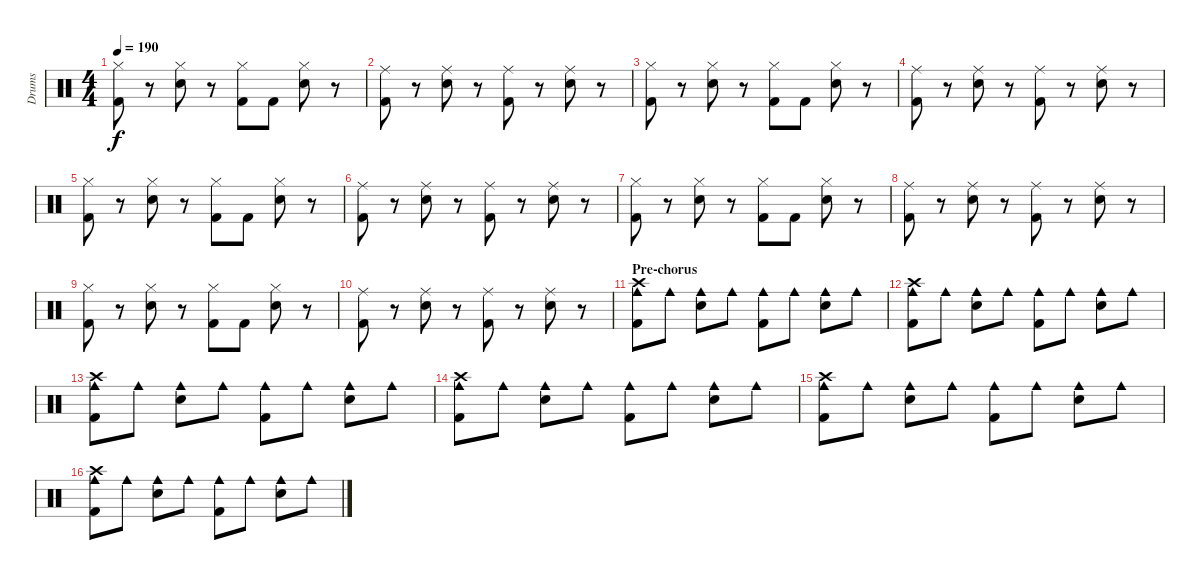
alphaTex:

\track ("Drums" "Drums") {instrument percussion}
\staff {score}
\articulation defaults
\ts (4 4)
\tempo 190
\clef neutral
\ks c
("Hi-Hat (closed)" "Kick (hit) 2").8{dy f} r.8 ("Hi-Hat (closed)" "Electric Snare (hit)").8 r.8 ("Hi-Hat (closed)" "Kick (hit) 2").8 "Kick (hit) 2".8 ("Hi-Hat (closed)" "Electric Snare (hit)").8 r.8 |
("Ride (middle)" "Kick (hit) 2").8 r.8 ("Ride (middle)" "Electric Snare (hit)").8 r.8 ("Ride (middle)" "Kick (hit) 2").8 r.8 ("Ride (middle)" "Electric Snare (hit)").8 r.8 |
("Hi-Hat (closed)" "Kick (hit) 2").8 r.8 ("Hi-Hat (closed)" "Electric Snare (hit)").8 r.8 ("Hi-Hat (closed)" "Kick (hit) 2").8 "Kick (hit) 2".8 ("Hi-Hat (closed)" "Electric Snare (hit)").8 r.8 |
("Ride (middle)" "Kick (hit) 2").8 r.8 ("Ride (middle)" "Electric Snare (hit)").8 r.8 ("Ride (middle)" "Kick (hit) 2").8 r.8 ("Ride (middle)" "Electric Snare (hit)").8 r.8 |
("Hi-Hat (closed)" "Kick (hit) 2").8 r.8 ("Hi-Hat (closed)" "Electric Snare (hit)").8 r.8 ("Hi-Hat (closed)" "Kick (hit) 2").8 "Kick (hit) 2".8 ("Hi-Hat (closed)" "Electric Snare (hit)").8 r.8 |
("Ride (middle)" "Kick (hit) 2").8 r.8 ("Ride (middle)" "Electric Snare (hit)").8 r.8 ("Ride (middle)" "Kick (hit) 2").8 r.8 ("Ride (middle)" "Electric Snare (hit)").8 r.8 |
("Hi-Hat (closed)" "Kick (hit) 2").8 r.8 ("Hi-Hat (closed)" "Electric Snare (hit)").8 r.8 ("Hi-Hat (closed)" "Kick (hit) 2").8 "Kick (hit) 2".8 ("Hi-Hat (closed)" "Electric Snare (hit)").8 r.8 |
("Ride (middle)" "Kick (hit) 2").8 r.8 ("Ride (middle)" "Electric Snare (hit)").8 r.8 ("Ride (middle)" "Kick (hit) 2").8 r.8 ("Ride (middle)" "Electric Snare (hit)").8 r.8 |
("Hi-Hat (closed)" "Kick (hit) 2").8 r.8 ("Hi-Hat (closed)" "Electric Snare (hit)").8 r.8 ("Hi-Hat (closed)" "Kick (hit) 2").8 "Kick (hit) 2".8 ("Hi-Hat (closed)" "Electric Snare (hit)").8 r.8 |
("Ride (middle)" "Kick (hit) 2").8 r.8 ("Ride (middle)" "Electric Snare (hit)").8 r.8 ("Ride (middle)" "Kick (hit) 2").8 r.8 ("Ride (middle)" "Electric Snare (hit)").8 r.8 |
\section ("" "Pre-chorus")
("Crash high (hit)" "Cowbell medium (hit)" "Kick (hit) 2").8 "Cowbell medium (hit)".8 ("Cowbell medium (hit)" "Electric Snare (hit)").8 "Cowbell medium (hit)".8 ("Cowbell medium (hit)" "Kick (hit) 2").8 "Cowbell medium (hit)".8 ("Cowbell medium (hit)" "Electric Snare (hit)").8 "Cowbell medium (hit)".8 |
("Crash high (hit)" "Cowbell medium (hit)" "Kick (hit) 2").8 "Cowbell medium (hit)".8 ("Cowbell medium (hit)" "Electric Snare (hit)").8 "Cowbell medium (hit)".8 ("Cowbell medium (hit)" "Kick (hit) 2").8 "Cowbell medium (hit)".8 ("Cowbell medium (hit)" "Electric Snare (hit)").8 "Cowbell medium (hit)".8 |
("Crash high (hit)" "Cowbell medium (hit)" "Kick (hit) 2").8 "Cowbell medium (hit)".8 ("Cowbell medium (hit)" "Electric Snare (hit)").8 "Cowbell medium (hit)".8 ("Cowbell medium (hit)" "Kick (hit) 2").8 "Cowbell medium (hit)".8 ("Cowbell medium (hit)" "Electric Snare (hit)").8 "Cowbell medium (hit)".8 |
("Crash high (hit)" "Cowbell medium (hit)" "Kick (hit) 2").8 "Cowbell medium (hit)".8 ("Cowbell medium (hit)" "Electric Snare (hit)").8 "Cowbell medium (hit)".8 ("Cowbell medium (hit)" "Kick (hit) 2").8 "Cowbell medium (hit)".8 ("Cowbell medium (hit)" "Electric Snare (hit)").8 "Cowbell medium (hit)".8 |
("Crash high (hit)" "Cowbell medium (hit)" "Kick (hit) 2").8 "Cowbell medium (hit)".8 ("Cowbell medium (hit)" "Electric Snare (hit)").8 "Cowbell medium (hit)".8 ("Cowbell medium (hit)" "Kick (hit) 2").8 "Cowbell medium (hit)".8 ("Cowbell medium (hit)" "Electric Snare (hit)").8 "Cowbell medium (hit)".8 |
("Crash high (hit)" "Cowbell medium (hit)" "Kick (hit) 2").8 "Cowbell medium (hit)".8 ("Cowbell medium (hit)" "Electric Snare (hit)").8 "Cowbell medium (hit)".8 ("Cowbell medium (hit)" "Kick (hit) 2").8 "Cowbell medium (hit)".8 ("Cowbell medium (hit)" "Electric Snare (hit)").8 "Cowbell medium (hit)".8
